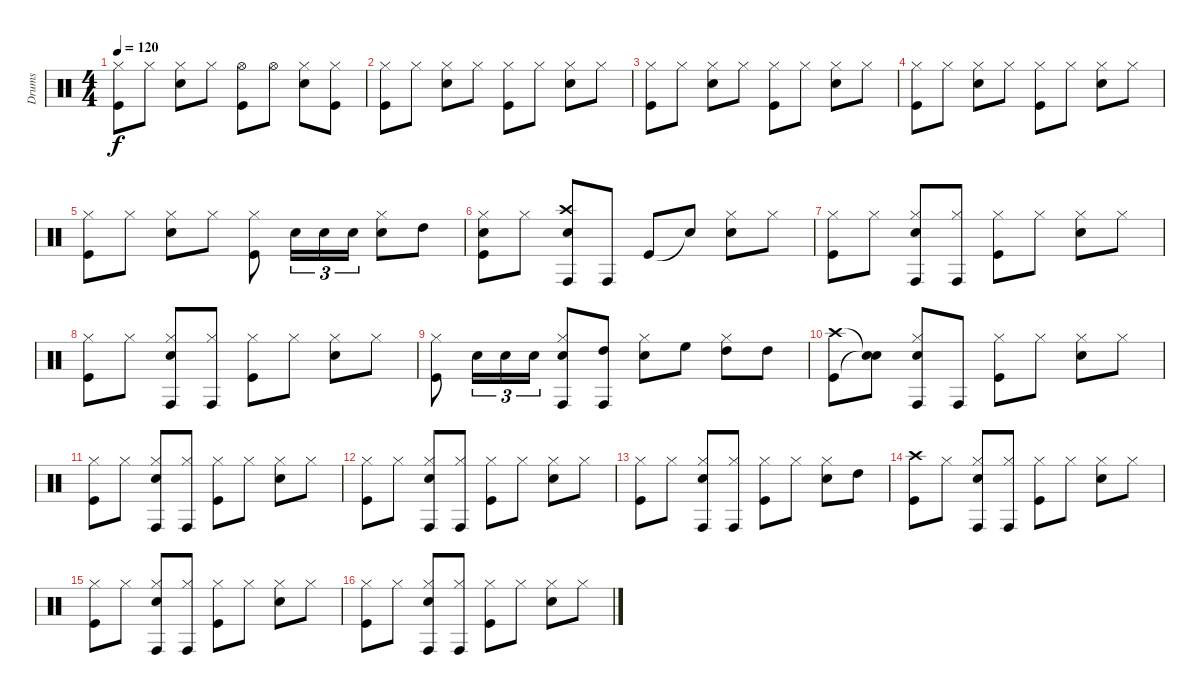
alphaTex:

\track ("Drums" "Drums") {instrument percussion}
\staff {score}
\articulation defaults
\ts (4 4)
\tempo 120
\clef neutral
\ks c
("Hi-Hat (closed)" "Kick (hit)").8{dy f} "Hi-Hat (closed)".8 ("Hi-Hat (closed)" "Snare (hit) 2").8 "Hi-Hat (closed)".8 ("Hi-Hat (open)" "Kick (hit)").8 "Hi-Hat (open)".8 ("Hi-Hat (closed)" "Snare (hit) 2").8 ("Hi-Hat (closed)" "Kick (hit)").8 |
("Hi-Hat (closed)" "Kick (hit)").8 "Hi-Hat (closed)".8 ("Hi-Hat (closed)" "Snare (hit) 2").8 "Hi-Hat (closed)".8 ("Hi-Hat (closed)" "Kick (hit)").8 "Hi-Hat (closed)".8 ("Hi-Hat (closed)" "Snare (hit) 2").8 "Hi-Hat (closed)".8 |
("Hi-Hat (closed)" "Kick (hit)").8 "Hi-Hat (closed)".8 ("Hi-Hat (closed)" "Snare (hit) 2").8 "Hi-Hat (closed)".8 ("Hi-Hat (closed)" "Kick (hit)").8 "Hi-Hat (closed)".8 ("Hi-Hat (closed)" "Snare (hit) 2").8 "Hi-Hat (closed)".8 |
("Hi-Hat (closed)" "Kick (hit)").8 "Hi-Hat (closed)".8 ("Hi-Hat (closed)" "Snare (hit) 2").8 "Hi-Hat (closed)".8 ("Hi-Hat (closed)" "Kick (hit)").8 "Hi-Hat (closed)".8 ("Hi-Hat (closed)" "Snare (hit) 2").8 "Hi-Hat (closed)".8 |
("Hi-Hat (closed)" "Kick (hit)").8 "Hi-Hat (closed)".8 ("Hi-Hat (closed)" "Snare (hit) 2").8 "Hi-Hat (closed)".8 ("Hi-Hat (closed)" "Kick (hit)").8 "Snare (hit) 2".16{tu (3 2)} "Snare (hit) 2".16{tu (3 2)} "Snare (hit) 2".16{tu (3 2)} ("Hi-Hat (closed)" "Snare (hit) 2").8 "High Tom (hit)".8 |
("Hi-Hat (closed)" "Snare (hit) 2" "Kick (hit)").8 "Hi-Hat (closed)".8 ("Crash high (hit)" "Conga high (hit)" "Snare (hit) 2").8 "Conga high (hit)".8 "Kick (hit)".8 "Snare (hit)"{t}.8 ("Hi-Hat (closed)" "Snare (hit) 2").8 "Hi-Hat (closed)".8 |
("Hi-Hat (closed)" "Kick (hit)").8 "Hi-Hat (closed)".8 ("Hi-Hat (closed)" "Conga high (hit)" "Snare (hit) 2").8 ("Hi-Hat (closed)" "Conga high (hit)").8 ("Hi-Hat (closed)" "Kick (hit)").8 "Hi-Hat (closed)".8 ("Hi-Hat (closed)" "Snare (hit) 2").8 "Hi-Hat (closed)".8 |
("Hi-Hat (closed)" "Kick (hit)").8 "Hi-Hat (closed)".8 ("Hi-Hat (closed)" "Conga high (hit)" "Snare (hit) 2").8 ("Hi-Hat (closed)" "Conga high (hit)").8 ("Hi-Hat (closed)" "Kick (hit)").8 "Hi-Hat (closed)".8 ("Hi-Hat (closed)" "Snare (hit) 2").8 "Hi-Hat (closed)".8 |
("Hi-Hat (closed)" "Kick (hit)").8 "Snare (hit) 2".16{tu (3 2)} "Snare (hit) 2".16{tu (3 2)} "Snare (hit) 2".16{tu (3 2)} ("Hi-Hat (closed)" "Conga high (hit)" "Snare (hit) 2").8 ("Conga high (hit)" "High Tom (hit)").8 ("Hi-Hat (closed)" "Snare (hit) 2").8 "High Floor Tom (hit)".8 ("Hi-Hat (closed)" "High Tom (hit)").8 "High Tom (hit)".8 |
("Crash high (hit)" "Kick (hit)").8 ("Snare (hit)"{t} "Snare (hit)"{t}).8 ("Hi-Hat (closed)" "Conga high (hit)" "Snare (hit) 2").8 "Conga high (hit)".8 ("Hi-Hat (closed)" "Kick (hit)").8 "Hi-Hat (closed)".8 ("Hi-Hat (closed)" "Snare (hit) 2").8 "Hi-Hat (closed)".8 |
("Hi-Hat (closed)" "Kick (hit)").8 "Hi-Hat (closed)".8 ("Hi-Hat (closed)" "Conga high (hit)" "Snare (hit) 2").8 ("Hi-Hat (closed)" "Conga high (hit)").8 ("Hi-Hat (closed)" "Kick (hit)").8 "Hi-Hat (closed)".8 ("Hi-Hat (closed)" "Snare (hit) 2").8 "Hi-Hat (closed)".8 |
("Hi-Hat (closed)" "Kick (hit)").8 "Hi-Hat (closed)".8 ("Hi-Hat (closed)" "Conga high (hit)" "Snare (hit) 2").8 ("Hi-Hat (closed)" "Conga high (hit)").8 ("Hi-Hat (closed)" "Kick (hit)").8 "Hi-Hat (closed)".8 ("Hi-Hat (closed)" "Snare (hit) 2").8 "Hi-Hat (closed)".8 |
("Hi-Hat (closed)" "Kick (hit)").8 "Hi-Hat (closed)".8 ("Hi-Hat (closed)" "Conga high (hit)" "Snare (hit) 2").8 ("Hi-Hat (closed)" "Conga high (hit)").8 ("Hi-Hat (closed)" "Kick (hit)").8 "Hi-Hat (closed)".8 ("Hi-Hat (closed)" "Snare (hit) 2").8 "High Tom (hit)".8 |
("Crash high (hit)" "Kick (hit)").8 "Hi-Hat (closed)".8 ("Hi-Hat (closed)" "Conga high (hit)" "Snare (hit) 2").8 ("Hi-Hat (closed)" "Conga high (hit)").8 ("Hi-Hat (closed)" "Kick (hit)").8 "Hi-Hat (closed)".8 ("Hi-Hat (closed)" "Snare (hit) 2").8 "Hi-Hat (closed)".8 |
("Hi-Hat (closed)" "Kick (hit)").8 "Hi-Hat (closed)".8 ("Hi-Hat (closed)" "Conga high (hit)" "Snare (hit) 2").8 ("Hi-Hat (closed)" "Conga high (hit)").8 ("Hi-Hat (closed)" "Kick (hit)").8 "Hi-Hat (closed)".8 ("Hi-Hat (closed)" "Snare (hit) 2").8 "Hi-Hat (closed)".8 |
("Hi-Hat (closed)" "Kick (hit)").8 "Hi-Hat (closed)".8 ("Hi-Hat (closed)" "Conga high (hit)" "Snare (hit) 2").8 ("Hi-Hat (closed)" "Conga high (hit)").8 ("Hi-Hat (closed)" "Kick (hit)").8 "Hi-Hat (closed)".8 ("Hi-Hat (closed)" "Snare (hit) 2").8 "Hi-Hat (closed)".8
